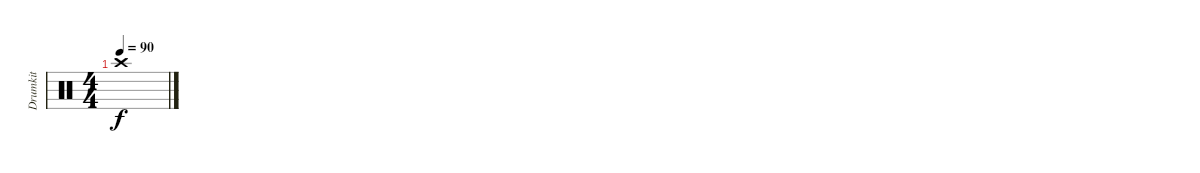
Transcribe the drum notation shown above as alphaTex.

\track ("Drumkit" "Drumkit") {instrument percussion}
\staff {score}
\articulation defaults
\ts (4 4)
\tempo 90
\clef neutral
\ks c "Crash high (hit)".1{dy f}
